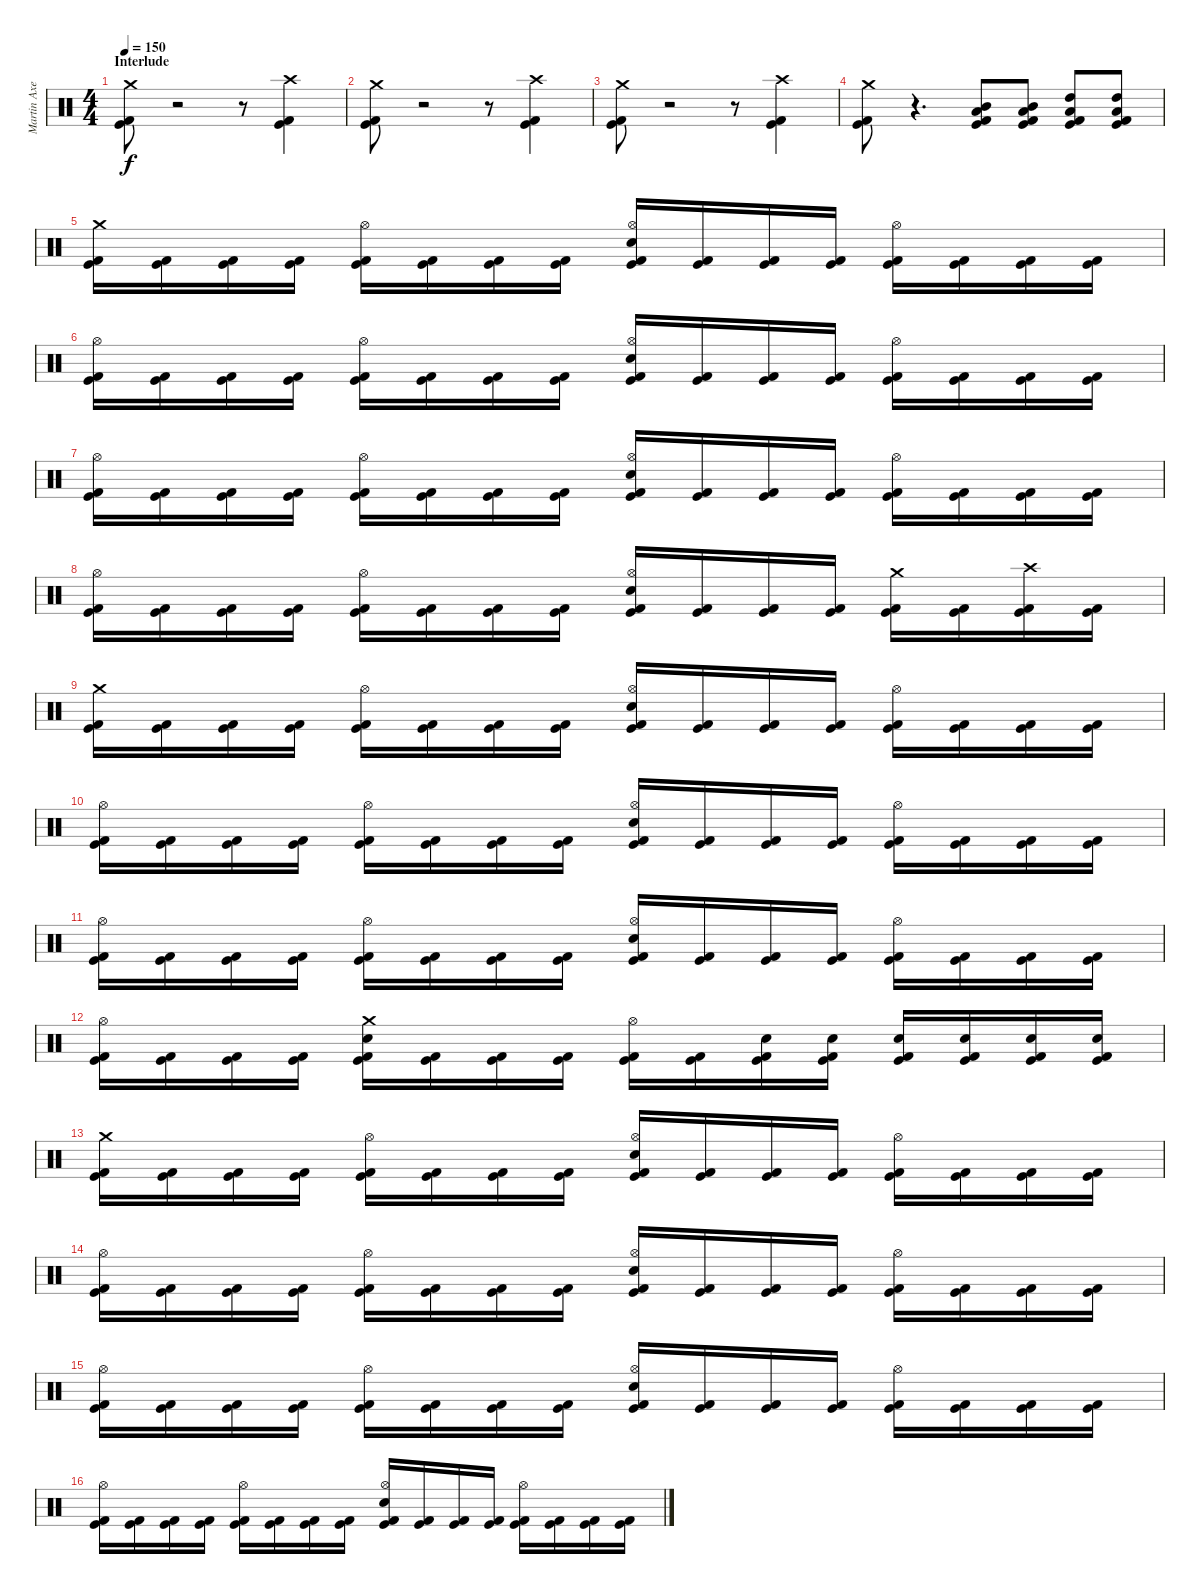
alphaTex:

\track ("Martin Axenrot" "Martin Axe") {instrument percussion}
\staff {score}
\articulation defaults
\ts (4 4)
\section ("" "Interlude")
\tempo 150
\clef neutral
\ks c
("Crash medium (hit)" "Kick (hit) 2" "Kick (hit)").8{dy f} r.2 r.8 ("Crash high (hit)" "Kick (hit) 2" "Kick (hit)").4 |
("Crash medium (hit)" "Kick (hit) 2" "Kick (hit)").8 r.2 r.8 ("Crash high (hit)" "Kick (hit) 2" "Kick (hit)").4 |
("Crash medium (hit)" "Kick (hit) 2" "Kick (hit)").8 r.2 r.8 ("Crash high (hit)" "Kick (hit) 2" "Kick (hit)").4 |
("Crash medium (hit)" "Kick (hit) 2" "Kick (hit)").8 r.4{d} ("Mid Tom (hit)" "Low Floor Tom (hit)" "Kick (hit) 2" "Kick (hit)").8 ("Mid Tom (hit)" "Low Floor Tom (hit)" "Kick (hit) 2" "Kick (hit)").8 ("High Tom (hit)" "Low Floor Tom (hit)" "Kick (hit) 2" "Kick (hit)").8 ("High Tom (hit)" "Low Floor Tom (hit)" "Kick (hit) 2" "Kick (hit)").8 |
("Crash medium (hit)" "Kick (hit) 2" "Kick (hit)").16 ("Kick (hit) 2" "Kick (hit)").16 ("Kick (hit) 2" "Kick (hit)").16 ("Kick (hit) 2" "Kick (hit)").16 ("Hi-Hat (open)" "Kick (hit) 2" "Kick (hit)").16 ("Kick (hit) 2" "Kick (hit)").16 ("Kick (hit) 2" "Kick (hit)").16 ("Kick (hit) 2" "Kick (hit)").16 ("Hi-Hat (open)" "Electric Snare (hit)" "Kick (hit) 2" "Kick (hit)").16 ("Kick (hit) 2" "Kick (hit)").16 ("Kick (hit) 2" "Kick (hit)").16 ("Kick (hit) 2" "Kick (hit)").16 ("Hi-Hat (open)" "Kick (hit) 2" "Kick (hit)").16 ("Kick (hit) 2" "Kick (hit)").16 ("Kick (hit) 2" "Kick (hit)").16 ("Kick (hit) 2" "Kick (hit)").16 |
("Hi-Hat (open)" "Kick (hit) 2" "Kick (hit)").16 ("Kick (hit) 2" "Kick (hit)").16 ("Kick (hit) 2" "Kick (hit)").16 ("Kick (hit) 2" "Kick (hit)").16 ("Hi-Hat (open)" "Kick (hit) 2" "Kick (hit)").16 ("Kick (hit) 2" "Kick (hit)").16 ("Kick (hit) 2" "Kick (hit)").16 ("Kick (hit) 2" "Kick (hit)").16 ("Hi-Hat (open)" "Electric Snare (hit)" "Kick (hit) 2" "Kick (hit)").16 ("Kick (hit) 2" "Kick (hit)").16 ("Kick (hit) 2" "Kick (hit)").16 ("Kick (hit) 2" "Kick (hit)").16 ("Hi-Hat (open)" "Kick (hit) 2" "Kick (hit)").16 ("Kick (hit) 2" "Kick (hit)").16 ("Kick (hit) 2" "Kick (hit)").16 ("Kick (hit) 2" "Kick (hit)").16 |
("Hi-Hat (open)" "Kick (hit) 2" "Kick (hit)").16 ("Kick (hit) 2" "Kick (hit)").16 ("Kick (hit) 2" "Kick (hit)").16 ("Kick (hit) 2" "Kick (hit)").16 ("Hi-Hat (open)" "Kick (hit) 2" "Kick (hit)").16 ("Kick (hit) 2" "Kick (hit)").16 ("Kick (hit) 2" "Kick (hit)").16 ("Kick (hit) 2" "Kick (hit)").16 ("Hi-Hat (open)" "Electric Snare (hit)" "Kick (hit) 2" "Kick (hit)").16 ("Kick (hit) 2" "Kick (hit)").16 ("Kick (hit) 2" "Kick (hit)").16 ("Kick (hit) 2" "Kick (hit)").16 ("Hi-Hat (open)" "Kick (hit) 2" "Kick (hit)").16 ("Kick (hit) 2" "Kick (hit)").16 ("Kick (hit) 2" "Kick (hit)").16 ("Kick (hit) 2" "Kick (hit)").16 |
("Hi-Hat (open)" "Kick (hit) 2" "Kick (hit)").16 ("Kick (hit) 2" "Kick (hit)").16 ("Kick (hit) 2" "Kick (hit)").16 ("Kick (hit) 2" "Kick (hit)").16 ("Hi-Hat (open)" "Kick (hit) 2" "Kick (hit)").16 ("Kick (hit) 2" "Kick (hit)").16 ("Kick (hit) 2" "Kick (hit)").16 ("Kick (hit) 2" "Kick (hit)").16 ("Hi-Hat (open)" "Electric Snare (hit)" "Kick (hit) 2" "Kick (hit)").16 ("Kick (hit) 2" "Kick (hit)").16 ("Kick (hit) 2" "Kick (hit)").16 ("Kick (hit) 2" "Kick (hit)").16 ("Crash medium (hit)" "Kick (hit) 2" "Kick (hit)").16 ("Kick (hit) 2" "Kick (hit)").16 ("Crash high (hit)" "Kick (hit) 2" "Kick (hit)").16 ("Kick (hit) 2" "Kick (hit)").16 |
("Crash medium (hit)" "Kick (hit) 2" "Kick (hit)").16 ("Kick (hit) 2" "Kick (hit)").16 ("Kick (hit) 2" "Kick (hit)").16 ("Kick (hit) 2" "Kick (hit)").16 ("Hi-Hat (open)" "Kick (hit) 2" "Kick (hit)").16 ("Kick (hit) 2" "Kick (hit)").16 ("Kick (hit) 2" "Kick (hit)").16 ("Kick (hit) 2" "Kick (hit)").16 ("Hi-Hat (open)" "Electric Snare (hit)" "Kick (hit) 2" "Kick (hit)").16 ("Kick (hit) 2" "Kick (hit)").16 ("Kick (hit) 2" "Kick (hit)").16 ("Kick (hit) 2" "Kick (hit)").16 ("Hi-Hat (open)" "Kick (hit) 2" "Kick (hit)").16 ("Kick (hit) 2" "Kick (hit)").16 ("Kick (hit) 2" "Kick (hit)").16 ("Kick (hit) 2" "Kick (hit)").16 |
("Hi-Hat (open)" "Kick (hit) 2" "Kick (hit)").16 ("Kick (hit) 2" "Kick (hit)").16 ("Kick (hit) 2" "Kick (hit)").16 ("Kick (hit) 2" "Kick (hit)").16 ("Hi-Hat (open)" "Kick (hit) 2" "Kick (hit)").16 ("Kick (hit) 2" "Kick (hit)").16 ("Kick (hit) 2" "Kick (hit)").16 ("Kick (hit) 2" "Kick (hit)").16 ("Hi-Hat (open)" "Electric Snare (hit)" "Kick (hit) 2" "Kick (hit)").16 ("Kick (hit) 2" "Kick (hit)").16 ("Kick (hit) 2" "Kick (hit)").16 ("Kick (hit) 2" "Kick (hit)").16 ("Hi-Hat (open)" "Kick (hit) 2" "Kick (hit)").16 ("Kick (hit) 2" "Kick (hit)").16 ("Kick (hit) 2" "Kick (hit)").16 ("Kick (hit) 2" "Kick (hit)").16 |
("Hi-Hat (open)" "Kick (hit) 2" "Kick (hit)").16 ("Kick (hit) 2" "Kick (hit)").16 ("Kick (hit) 2" "Kick (hit)").16 ("Kick (hit) 2" "Kick (hit)").16 ("Hi-Hat (open)" "Kick (hit) 2" "Kick (hit)").16 ("Kick (hit) 2" "Kick (hit)").16 ("Kick (hit) 2" "Kick (hit)").16 ("Kick (hit) 2" "Kick (hit)").16 ("Hi-Hat (open)" "Electric Snare (hit)" "Kick (hit) 2" "Kick (hit)").16 ("Kick (hit) 2" "Kick (hit)").16 ("Kick (hit) 2" "Kick (hit)").16 ("Kick (hit) 2" "Kick (hit)").16 ("Hi-Hat (open)" "Kick (hit) 2" "Kick (hit)").16 ("Kick (hit) 2" "Kick (hit)").16 ("Kick (hit) 2" "Kick (hit)").16 ("Kick (hit) 2" "Kick (hit)").16 |
("Hi-Hat (open)" "Kick (hit) 2" "Kick (hit)").16 ("Kick (hit) 2" "Kick (hit)").16 ("Kick (hit) 2" "Kick (hit)").16 ("Kick (hit) 2" "Kick (hit)").16 ("Crash medium (hit)" "Electric Snare (hit)" "Kick (hit) 2" "Kick (hit)").16 ("Kick (hit) 2" "Kick (hit)").16 ("Kick (hit) 2" "Kick (hit)").16 ("Kick (hit) 2" "Kick (hit)").16 ("Hi-Hat (open)" "Kick (hit) 2" "Kick (hit)").16 ("Kick (hit) 2" "Kick (hit)").16 ("Electric Snare (hit)" "Kick (hit) 2" "Kick (hit)").16 ("Electric Snare (hit)" "Kick (hit) 2" "Kick (hit)").16 ("Electric Snare (hit)" "Kick (hit) 2" "Kick (hit)").16 ("Electric Snare (hit)" "Kick (hit) 2" "Kick (hit)").16 ("Electric Snare (hit)" "Kick (hit) 2" "Kick (hit)").16 ("Electric Snare (hit)" "Kick (hit) 2" "Kick (hit)").16 |
("Crash medium (hit)" "Kick (hit) 2" "Kick (hit)").16 ("Kick (hit) 2" "Kick (hit)").16 ("Kick (hit) 2" "Kick (hit)").16 ("Kick (hit) 2" "Kick (hit)").16 ("Hi-Hat (open)" "Kick (hit) 2" "Kick (hit)").16 ("Kick (hit) 2" "Kick (hit)").16 ("Kick (hit) 2" "Kick (hit)").16 ("Kick (hit) 2" "Kick (hit)").16 ("Hi-Hat (open)" "Electric Snare (hit)" "Kick (hit) 2" "Kick (hit)").16 ("Kick (hit) 2" "Kick (hit)").16 ("Kick (hit) 2" "Kick (hit)").16 ("Kick (hit) 2" "Kick (hit)").16 ("Hi-Hat (open)" "Kick (hit) 2" "Kick (hit)").16 ("Kick (hit) 2" "Kick (hit)").16 ("Kick (hit) 2" "Kick (hit)").16 ("Kick (hit) 2" "Kick (hit)").16 |
("Hi-Hat (open)" "Kick (hit) 2" "Kick (hit)").16 ("Kick (hit) 2" "Kick (hit)").16 ("Kick (hit) 2" "Kick (hit)").16 ("Kick (hit) 2" "Kick (hit)").16 ("Hi-Hat (open)" "Kick (hit) 2" "Kick (hit)").16 ("Kick (hit) 2" "Kick (hit)").16 ("Kick (hit) 2" "Kick (hit)").16 ("Kick (hit) 2" "Kick (hit)").16 ("Hi-Hat (open)" "Electric Snare (hit)" "Kick (hit) 2" "Kick (hit)").16 ("Kick (hit) 2" "Kick (hit)").16 ("Kick (hit) 2" "Kick (hit)").16 ("Kick (hit) 2" "Kick (hit)").16 ("Hi-Hat (open)" "Kick (hit) 2" "Kick (hit)").16 ("Kick (hit) 2" "Kick (hit)").16 ("Kick (hit) 2" "Kick (hit)").16 ("Kick (hit) 2" "Kick (hit)").16 |
("Hi-Hat (open)" "Kick (hit) 2" "Kick (hit)").16 ("Kick (hit) 2" "Kick (hit)").16 ("Kick (hit) 2" "Kick (hit)").16 ("Kick (hit) 2" "Kick (hit)").16 ("Hi-Hat (open)" "Kick (hit) 2" "Kick (hit)").16 ("Kick (hit) 2" "Kick (hit)").16 ("Kick (hit) 2" "Kick (hit)").16 ("Kick (hit) 2" "Kick (hit)").16 ("Hi-Hat (open)" "Electric Snare (hit)" "Kick (hit) 2" "Kick (hit)").16 ("Kick (hit) 2" "Kick (hit)").16 ("Kick (hit) 2" "Kick (hit)").16 ("Kick (hit) 2" "Kick (hit)").16 ("Hi-Hat (open)" "Kick (hit) 2" "Kick (hit)").16 ("Kick (hit) 2" "Kick (hit)").16 ("Kick (hit) 2" "Kick (hit)").16 ("Kick (hit) 2" "Kick (hit)").16 |
("Hi-Hat (open)" "Kick (hit) 2" "Kick (hit)").16 ("Kick (hit) 2" "Kick (hit)").16 ("Kick (hit) 2" "Kick (hit)").16 ("Kick (hit) 2" "Kick (hit)").16 ("Hi-Hat (open)" "Kick (hit) 2" "Kick (hit)").16 ("Kick (hit) 2" "Kick (hit)").16 ("Kick (hit) 2" "Kick (hit)").16 ("Kick (hit) 2" "Kick (hit)").16 ("Hi-Hat (open)" "Electric Snare (hit)" "Kick (hit) 2" "Kick (hit)").16 ("Kick (hit) 2" "Kick (hit)").16 ("Kick (hit) 2" "Kick (hit)").16 ("Kick (hit) 2" "Kick (hit)").16 ("Hi-Hat (open)" "Kick (hit) 2" "Kick (hit)").16 ("Kick (hit) 2" "Kick (hit)").16 ("Kick (hit) 2" "Kick (hit)").16 ("Kick (hit) 2" "Kick (hit)").16
